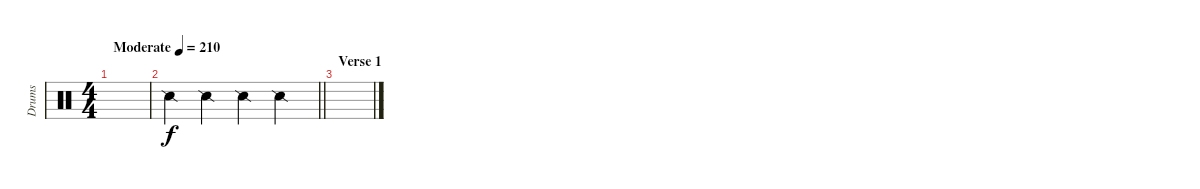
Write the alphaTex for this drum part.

\track ("Drums" "Drums") {instrument percussion}
\staff {score}
\articulation defaults
\ts (4 4)
\tempo (210 "Moderate")
\clef neutral
\ks c
|
\barLineRight lightlight "Snare (side stick) 2".4 "Snare (side stick) 2".4 "Snare (side stick) 2".4 "Snare (side stick) 2".4
|
\section ("" "Verse 1")
